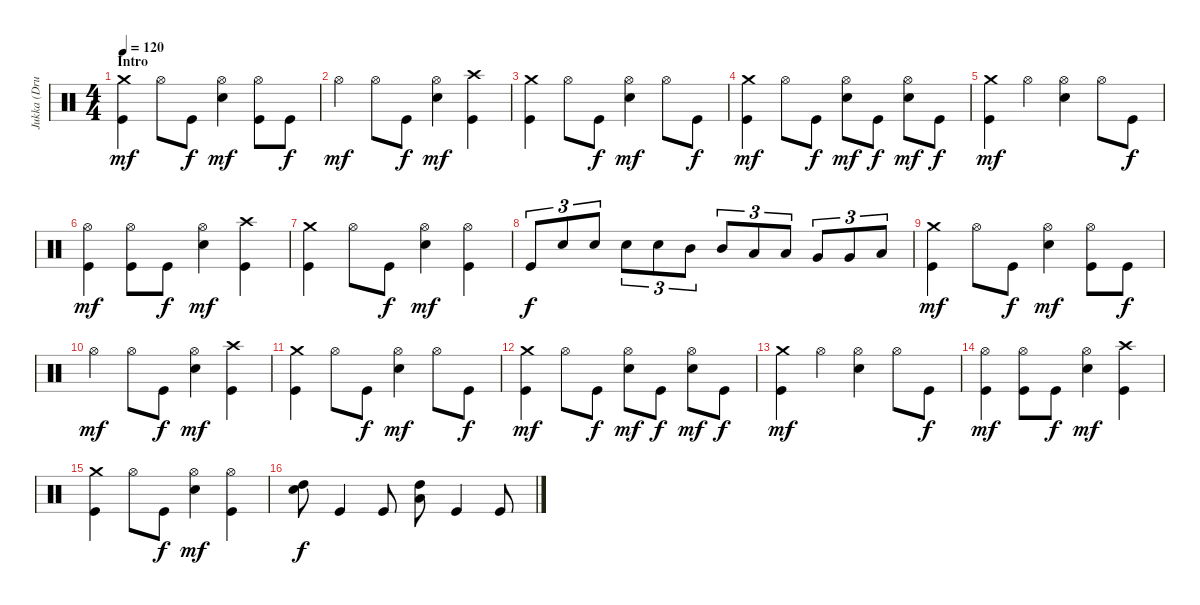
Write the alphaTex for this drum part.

\track ("Jukka (Drums)" "Jukka (Dru") {instrument percussion}
\staff {score}
\articulation defaults
\ts (4 4)
\section ("" "Intro")
\tempo 120
\clef neutral
\ks c
("Crash medium (hit)" "Kick (hit)").4{dy mf} "Hi-Hat (open)".8 "Kick (hit)".8{dy f} ("Hi-Hat (open)" "Electric Snare (hit)").4{dy mf} ("Hi-Hat (open)" "Kick (hit)").8 "Kick (hit)".8{dy f} |
"Hi-Hat (open)".4{dy mf} "Hi-Hat (open)".8 "Kick (hit)".8{dy f} ("Hi-Hat (open)" "Electric Snare (hit)").4{dy mf} ("Crash high (hit)" "Kick (hit)").4 |
("Crash medium (hit)" "Kick (hit)").4 "Hi-Hat (open)".8 "Kick (hit)".8{dy f} ("Hi-Hat (open)" "Electric Snare (hit)").4{dy mf} "Hi-Hat (open)".8 "Kick (hit)".8{dy f} |
("Crash medium (hit)" "Kick (hit)").4{dy mf} "Hi-Hat (open)".8 "Kick (hit)".8{dy f} ("Hi-Hat (open)" "Electric Snare (hit)").8{dy mf} "Kick (hit)".8{dy f} ("Hi-Hat (open)" "Electric Snare (hit)").8{dy mf} "Kick (hit)".8{dy f} |
("Crash medium (hit)" "Kick (hit)").4{dy mf} "Hi-Hat (open)".4 ("Hi-Hat (open)" "Electric Snare (hit)").4 "Hi-Hat (open)".8 "Kick (hit)".8{dy f} |
("Hi-Hat (open)" "Kick (hit)").4{dy mf} ("Hi-Hat (open)" "Kick (hit)").8 "Kick (hit)".8{dy f} ("Hi-Hat (open)" "Electric Snare (hit)").4{dy mf} ("Crash high (hit)" "Kick (hit)").4 |
("Crash medium (hit)" "Kick (hit)").4 "Hi-Hat (open)".8 "Kick (hit)".8{dy f} ("Hi-Hat (open)" "Electric Snare (hit)").4{dy mf} ("Hi-Hat (open)" "Kick (hit)").4 |
"Kick (hit)".8{tu (3 2) dy f} "Electric Snare (hit)".8{tu (3 2)} "Electric Snare (hit)".8{tu (3 2)} "Electric Snare (hit)".8{tu (3 2)} "Electric Snare (hit)".8{tu (3 2)} "Mid Tom (hit)".8{tu (3 2)} "Mid Tom (hit)".8{tu (3 2)} "Low Tom (hit)".8{tu (3 2) balance 14} "Low Tom (hit)".8{tu (3 2) balance 14} "Very Low Tom (hit)".8{tu (3 2) balance 2} "Very Low Tom (hit)".8{tu (3 2) balance 2} "Low Floor Tom (hit)".8{tu (3 2)} |
("Crash medium (hit)" "Kick (hit)").4{dy mf balance 8} "Hi-Hat (open)".8 "Kick (hit)".8{dy f} ("Hi-Hat (open)" "Electric Snare (hit)").4{dy mf} ("Hi-Hat (open)" "Kick (hit)").8 "Kick (hit)".8{dy f} |
"Hi-Hat (open)".4{dy mf} "Hi-Hat (open)".8 "Kick (hit)".8{dy f} ("Hi-Hat (open)" "Electric Snare (hit)").4{dy mf} ("Crash high (hit)" "Kick (hit)").4 |
("Crash medium (hit)" "Kick (hit)").4 "Hi-Hat (open)".8 "Kick (hit)".8{dy f} ("Hi-Hat (open)" "Electric Snare (hit)").4{dy mf} "Hi-Hat (open)".8 "Kick (hit)".8{dy f} |
("Crash medium (hit)" "Kick (hit)").4{dy mf} "Hi-Hat (open)".8 "Kick (hit)".8{dy f} ("Hi-Hat (open)" "Electric Snare (hit)").8{dy mf} "Kick (hit)".8{dy f} ("Hi-Hat (open)" "Electric Snare (hit)").8{dy mf} "Kick (hit)".8{dy f} |
("Crash medium (hit)" "Kick (hit)").4{dy mf} "Hi-Hat (open)".4 ("Hi-Hat (open)" "Electric Snare (hit)").4 "Hi-Hat (open)".8 "Kick (hit)".8{dy f} |
("Hi-Hat (open)" "Kick (hit)").4{dy mf} ("Hi-Hat (open)" "Kick (hit)").8 "Kick (hit)".8{dy f} ("Hi-Hat (open)" "Electric Snare (hit)").4{dy mf} ("Crash high (hit)" "Kick (hit)").4 |
("Crash medium (hit)" "Kick (hit)").4 "Hi-Hat (open)".8 "Kick (hit)".8{dy f} ("Hi-Hat (open)" "Electric Snare (hit)").4{dy mf} ("Hi-Hat (open)" "Kick (hit)").4 |
("High Tom (hit)" "Electric Snare (hit)").8{dy f} "Kick (hit)".4 "Kick (hit)".8 ("Low Tom (hit)" "High Tom (hit)").8 "Kick (hit)".4 "Kick (hit)".8
